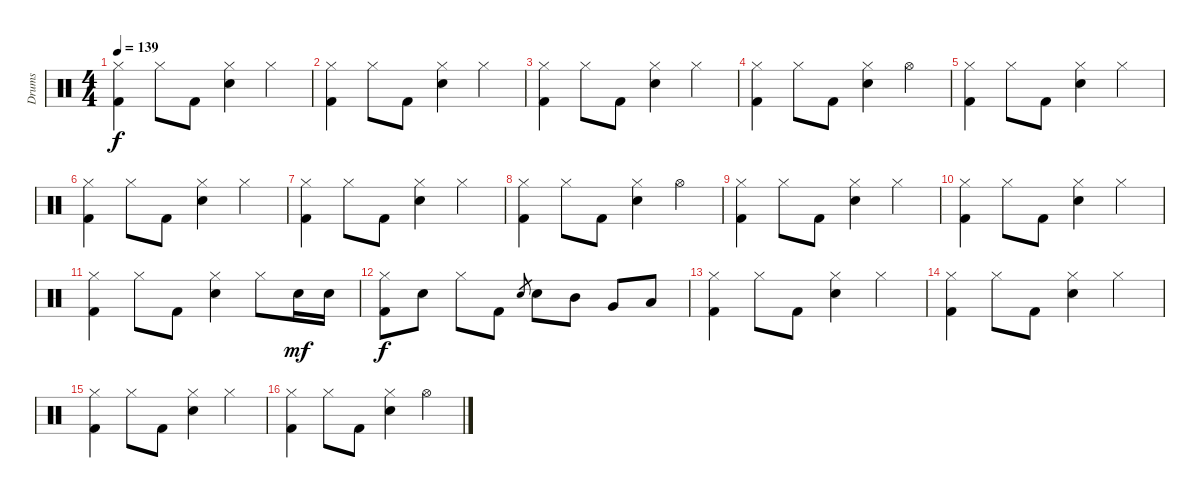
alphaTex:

\track ("Drums" "Drums") {instrument percussion}
\staff {score}
\articulation defaults
\ts (4 4)
\tempo 139
\clef neutral
\ks c
("Hi-Hat (closed)" "Kick (hit) 2").4{dy f} "Hi-Hat (closed)".8 "Kick (hit) 2".8 ("Hi-Hat (closed)" "Electric Snare (hit)").4 "Hi-Hat (closed)".4 |
("Hi-Hat (closed)" "Kick (hit) 2").4 "Hi-Hat (closed)".8 "Kick (hit) 2".8 ("Hi-Hat (closed)" "Electric Snare (hit)").4 "Hi-Hat (closed)".4 |
("Hi-Hat (closed)" "Kick (hit) 2").4 "Hi-Hat (closed)".8 "Kick (hit) 2".8 ("Hi-Hat (closed)" "Electric Snare (hit)").4 "Hi-Hat (closed)".4 |
("Hi-Hat (closed)" "Kick (hit) 2").4 "Hi-Hat (closed)".8 "Kick (hit) 2".8 ("Hi-Hat (closed)" "Electric Snare (hit)").4 "Hi-Hat (open)".4 |
("Hi-Hat (closed)" "Kick (hit) 2").4 "Hi-Hat (closed)".8 "Kick (hit) 2".8 ("Hi-Hat (closed)" "Electric Snare (hit)").4 "Hi-Hat (closed)".4 |
("Hi-Hat (closed)" "Kick (hit) 2").4 "Hi-Hat (closed)".8 "Kick (hit) 2".8 ("Hi-Hat (closed)" "Electric Snare (hit)").4 "Hi-Hat (closed)".4 |
("Hi-Hat (closed)" "Kick (hit) 2").4 "Hi-Hat (closed)".8 "Kick (hit) 2".8 ("Hi-Hat (closed)" "Electric Snare (hit)").4 "Hi-Hat (closed)".4 |
("Hi-Hat (closed)" "Kick (hit) 2").4 "Hi-Hat (closed)".8 "Kick (hit) 2".8 ("Hi-Hat (closed)" "Electric Snare (hit)").4 "Hi-Hat (open)".4 |
("Hi-Hat (closed)" "Kick (hit) 2").4 "Hi-Hat (closed)".8 "Kick (hit) 2".8 ("Hi-Hat (closed)" "Electric Snare (hit)").4 "Hi-Hat (closed)".4 |
("Hi-Hat (closed)" "Kick (hit) 2").4 "Hi-Hat (closed)".8 "Kick (hit) 2".8 ("Hi-Hat (closed)" "Electric Snare (hit)").4 "Hi-Hat (closed)".4 |
("Hi-Hat (closed)" "Kick (hit) 2").4 "Hi-Hat (closed)".8 "Kick (hit) 2".8 ("Hi-Hat (closed)" "Electric Snare (hit)").4 "Hi-Hat (closed)".8 "Electric Snare (hit)".16{dy mf} "Electric Snare (hit)".16 |
("Hi-Hat (closed)" "Kick (hit) 2").8{dy f} "Electric Snare (hit)".8 "Hi-Hat (closed)".8 "Kick (hit) 2".8 "Electric Snare (hit)".8{gr} "Electric Snare (hit)".8 "Mid Tom (hit)".8 "Very Low Tom (hit)".8 "Low Floor Tom (hit)".8 |
("Hi-Hat (closed)" "Kick (hit) 2").4 "Hi-Hat (closed)".8 "Kick (hit) 2".8 ("Hi-Hat (closed)" "Electric Snare (hit)").4 "Hi-Hat (closed)".4 |
("Hi-Hat (closed)" "Kick (hit) 2").4 "Hi-Hat (closed)".8 "Kick (hit) 2".8 ("Hi-Hat (closed)" "Electric Snare (hit)").4 "Hi-Hat (closed)".4 |
("Hi-Hat (closed)" "Kick (hit) 2").4 "Hi-Hat (closed)".8 "Kick (hit) 2".8 ("Hi-Hat (closed)" "Electric Snare (hit)").4 "Hi-Hat (closed)".4 |
("Hi-Hat (closed)" "Kick (hit) 2").4 "Hi-Hat (closed)".8 "Kick (hit) 2".8 ("Hi-Hat (closed)" "Electric Snare (hit)").4 "Hi-Hat (open)".4
